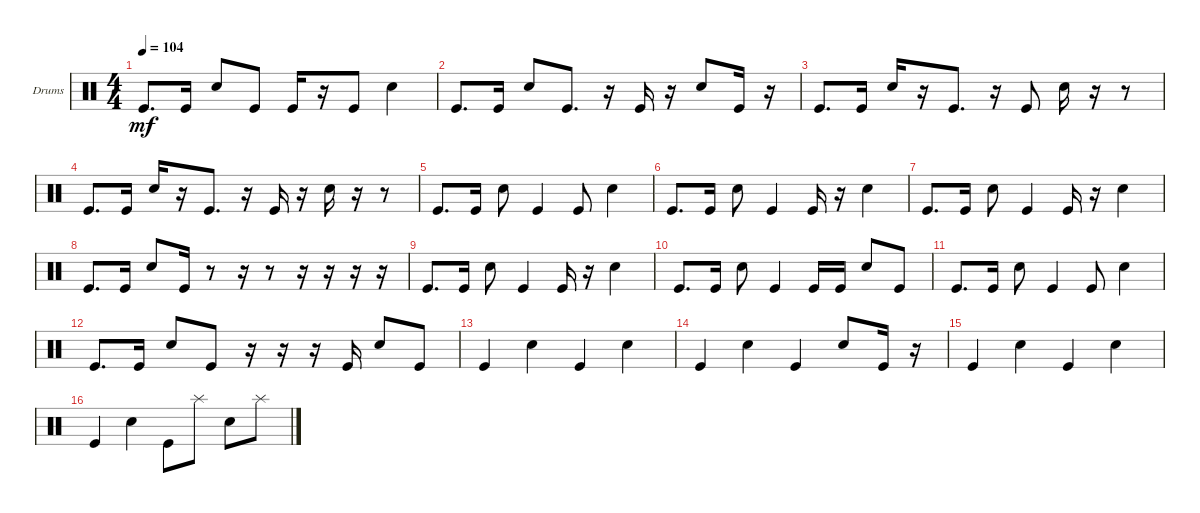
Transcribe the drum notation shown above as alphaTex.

\bracketExtendMode groupsimilarinstruments
\firstSystemTrackNameOrientation horizontal
\otherSystemsTrackNameOrientation horizontal
\track ("Drums" "Drums") {instrument percussion}
\staff {score}
\articulation defaults
\ts (4 4)
\tempo 104
\clef neutral
\ks c "Kick (hit)".8{d dy mf} "Kick (hit)".16 "Snare (hit) 2".8 "Kick (hit)".8 "Kick (hit)".16
r.16 "Kick (hit)".8 "Snare (hit) 2".4 |
"Kick (hit)".8{d} "Kick (hit)".16 "Snare (hit) 2".8 "Kick (hit)".8{d} r.16 "Kick (hit)".16 r.16 "Snare (hit) 2".8 "Kick (hit)".16 r.16 |
"Kick (hit)".8{d} "Kick (hit)".16 "Snare (hit) 2".16 r.16 "Kick (hit)".8{d} r.16 "Kick (hit)".8 "Snare (hit) 2".16 r.16 r.8 |
"Kick (hit)".8{d} "Kick (hit)".16 "Snare (hit) 2".16 r.16 "Kick (hit)".8{d} r.16 "Kick (hit)".16 r.16 "Snare (hit) 2".16 r.16 r.8 |
"Kick (hit)".8{d} "Kick (hit)".16 "Snare (hit) 2".8 "Kick (hit)".4 "Kick (hit)".8 "Snare (hit) 2".4 |
"Kick (hit)".8{d} "Kick (hit)".16 "Snare (hit) 2".8 "Kick (hit)".4 "Kick (hit)".16 r.16 "Snare (hit) 2".4 |
"Kick (hit)".8{d} "Kick (hit)".16 "Snare (hit) 2".8 "Kick (hit)".4 "Kick (hit)".16 r.16 "Snare (hit) 2".4 |
"Kick (hit)".8{d} "Kick (hit)".16 "Snare (hit) 2".8 "Kick (hit)".16 r.8 r.16 r.8 r.16 r.16 r.16 r.16 |
"Kick (hit)".8{d} "Kick (hit)".16 "Snare (hit) 2".8 "Kick (hit)".4 "Kick (hit)".16 r.16 "Snare (hit) 2".4 |
"Kick (hit)".8{d} "Kick (hit)".16 "Snare (hit) 2".8 "Kick (hit)".4 "Kick (hit)".16 "Kick (hit)".16 "Snare (hit) 2".8 "Kick (hit)".8 |
"Kick (hit)".8{d} "Kick (hit)".16 "Snare (hit) 2".8 "Kick (hit)".4 "Kick (hit)".8 "Snare (hit) 2".4 |
"Kick (hit)".8{d} "Kick (hit)".16 "Snare (hit) 2".8 "Kick (hit)".8 r.16 r.16 r.16 "Kick (hit)".16 "Snare (hit) 2".8 "Kick (hit)".8 |
"Kick (hit)".4 "Snare (hit) 2".4 "Kick (hit)".4 "Snare (hit) 2".4 |
"Kick (hit)".4 "Snare (hit) 2".4 "Kick (hit)".4 "Snare (hit) 2".8 "Kick (hit)".16 r.16 |
"Kick (hit)".4 "Snare (hit) 2".4 "Kick (hit)".4 "Snare (hit) 2".4 |
"Kick (hit)".4 "Snare (hit) 2".4 "Kick (hit)".8 "Splash (hit)".8 "Snare (hit) 2".8 "Splash (hit)".8
